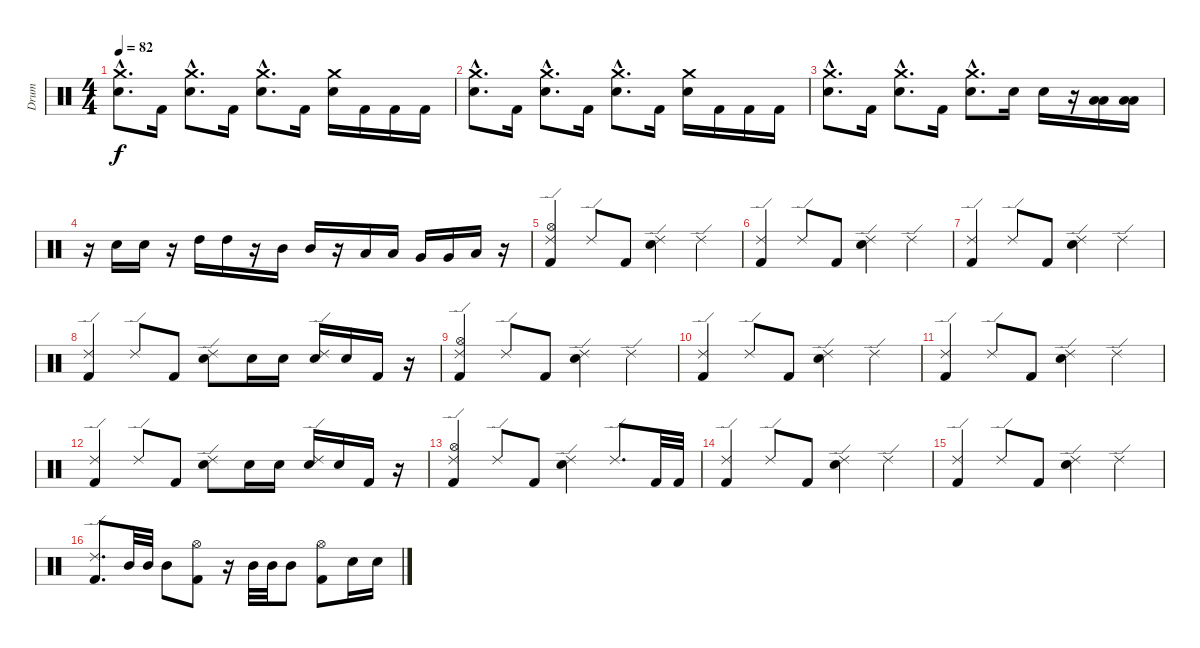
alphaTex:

\track ("Drum" "Drum") {instrument percussion}
\staff {score}
\articulation defaults
\ts (4 4)
\tempo 82
\clef neutral
\ks c
("Electric Snare (hit)"{hac} "Crash medium (hit)").8{d dy f} "Kick (hit) 2".16 ("Electric Snare (hit)"{hac} "Crash medium (hit)").8{d} "Kick (hit) 2".16 ("Electric Snare (hit)"{hac} "Crash medium (hit)").8{d} "Kick (hit) 2".16 ("Electric Snare (hit)" "Crash medium (hit)").16 "Kick (hit) 2".16 "Kick (hit) 2".16 "Kick (hit) 2".16 |
("Electric Snare (hit)"{hac} "Crash medium (hit)").8{d} "Kick (hit) 2".16 ("Electric Snare (hit)"{hac} "Crash medium (hit)").8{d} "Kick (hit) 2".16 ("Electric Snare (hit)"{hac} "Crash medium (hit)").8{d} "Kick (hit) 2".16 ("Electric Snare (hit)" "Crash medium (hit)").16 "Kick (hit) 2".16 "Kick (hit) 2".16 "Kick (hit) 2".16 |
("Electric Snare (hit)"{hac} "Crash medium (hit)").8{d} "Kick (hit) 2".16 ("Electric Snare (hit)"{hac} "Crash medium (hit)").8{d} "Kick (hit) 2".16 ("Electric Snare (hit)"{hac} "Crash medium (hit)").8{d} "Electric Snare (hit)".16 "Electric Snare (hit)".16 r.16 ("Low Tom (hit)" "Low Floor Tom (hit)").16 ("Low Floor Tom (hit)" "Low Tom (hit)").16 |
r.16 "Electric Snare (hit)".16 "Electric Snare (hit)".16 r.16 "High Tom (hit)".16 "High Tom (hit)".16 r.16 "Mid Tom (hit)".16 "Mid Tom (hit)".16 r.16 "Low Tom (hit)".16 "Low Tom (hit)".16 "Very Low Tom (hit)".16 "Very Low Tom (hit)".16 "Low Floor Tom (hit)".16 r.16 |
("Hi-Hat (open)" "Kick (hit) 2" "Ride (edge) 2").4 "Ride (edge) 2".8 "Kick (hit) 2".8 ("Electric Snare (hit)" "Ride (edge) 2").4 "Ride (edge) 2".4 |
("Kick (hit) 2" "Ride (edge) 2").4 "Ride (edge) 2".8 "Kick (hit) 2".8 ("Electric Snare (hit)" "Ride (edge) 2").4 "Ride (edge) 2".4 |
("Kick (hit) 2" "Ride (edge) 2").4 "Ride (edge) 2".8 "Kick (hit) 2".8 ("Electric Snare (hit)" "Ride (edge) 2").4 "Ride (edge) 2".4 |
("Kick (hit) 2" "Ride (edge) 2").4 "Ride (edge) 2".8 "Kick (hit) 2".8 ("Electric Snare (hit)" "Ride (edge) 2").8 "Electric Snare (hit)".16 "Electric Snare (hit)".16 ("Electric Snare (hit)" "Ride (edge) 2").16 "Electric Snare (hit)".16 "Kick (hit) 2".16 r.16 |
("Hi-Hat (open)" "Kick (hit) 2" "Ride (edge) 2").4 "Ride (edge) 2".8 "Kick (hit) 2".8 ("Electric Snare (hit)" "Ride (edge) 2").4 "Ride (edge) 2".4 |
("Kick (hit) 2" "Ride (edge) 2").4 "Ride (edge) 2".8 "Kick (hit) 2".8 ("Electric Snare (hit)" "Ride (edge) 2").4 "Ride (edge) 2".4 |
("Kick (hit) 2" "Ride (edge) 2").4 "Ride (edge) 2".8 "Kick (hit) 2".8 ("Electric Snare (hit)" "Ride (edge) 2").4 "Ride (edge) 2".4 |
("Kick (hit) 2" "Ride (edge) 2").4 "Ride (edge) 2".8 "Kick (hit) 2".8 ("Electric Snare (hit)" "Ride (edge) 2").8 "Electric Snare (hit)".16 "Electric Snare (hit)".16 ("Electric Snare (hit)" "Ride (edge) 2").16 "Electric Snare (hit)".16 "Kick (hit) 2".16 r.16 |
("Hi-Hat (open)" "Kick (hit) 2" "Ride (edge) 2").4 "Ride (edge) 2".8 "Kick (hit) 2".8 ("Electric Snare (hit)" "Ride (edge) 2").4 "Ride (edge) 2".8{d} "Kick (hit) 2".32 "Kick (hit) 2".32 |
("Kick (hit) 2" "Ride (edge) 2").4 "Ride (edge) 2".8 "Kick (hit) 2".8 ("Electric Snare (hit)" "Ride (edge) 2").4 "Ride (edge) 2".4 |
("Kick (hit) 2" "Ride (edge) 2").4 "Ride (edge) 2".8 "Kick (hit) 2".8 ("Electric Snare (hit)" "Ride (edge) 2").4 "Ride (edge) 2".4 |
("Kick (hit) 2" "Ride (edge) 2").8{d} "Mid Tom (hit)".32 "Mid Tom (hit)".32 "Mid Tom (hit)".8 ("Hi-Hat (open)" "Kick (hit) 2").8 r.16 "Mid Tom (hit)".32 "Mid Tom (hit)".32 "Mid Tom (hit)".8 ("Hi-Hat (open)" "Kick (hit) 2").8 "Electric Snare (hit)".16 "Electric Snare (hit)".16
